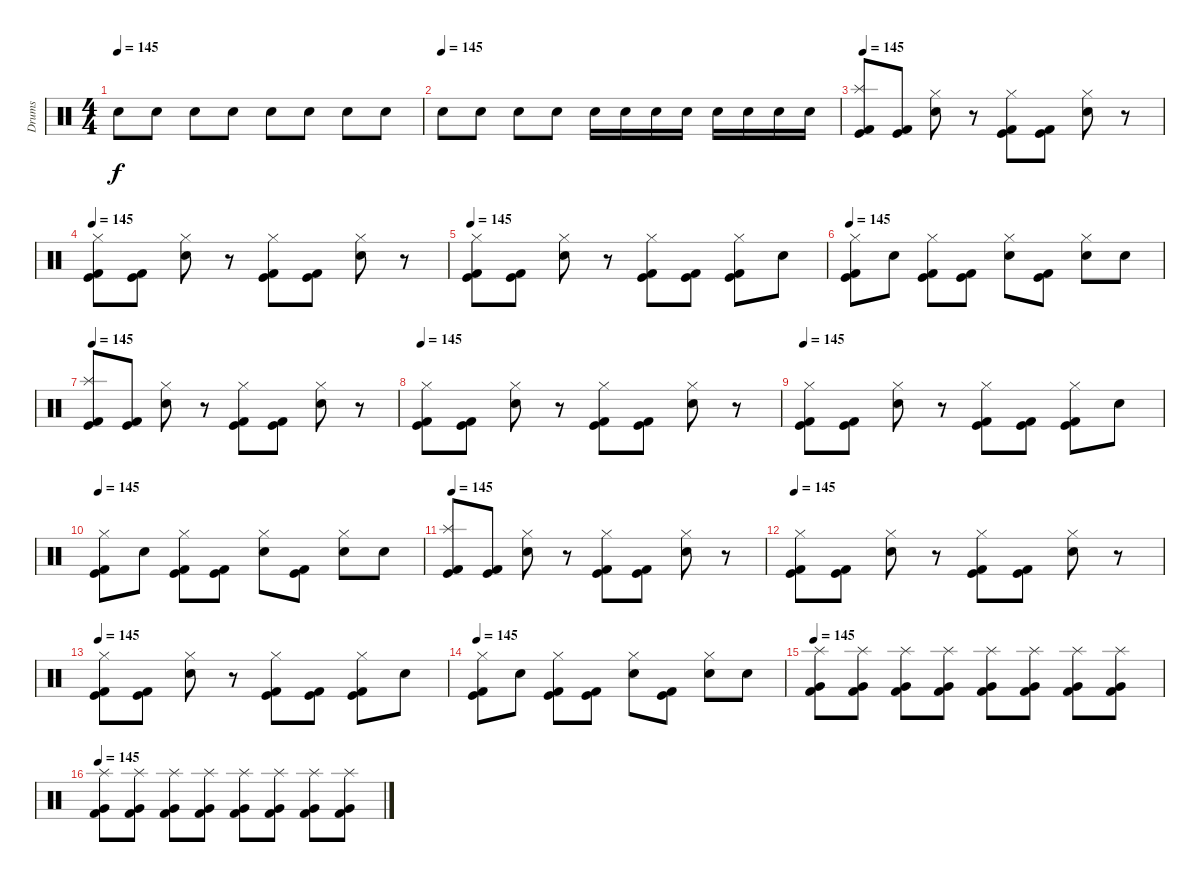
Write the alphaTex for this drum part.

\track ("Drums" "Drums") {instrument percussion}
\staff {score}
\articulation defaults
\ts (4 4)
\tempo 145
\clef neutral
\ks c "Snare (hit) 2".8{dy f} "Electric Snare (hit)".8 "Snare (hit) 2".8 "Electric Snare (hit)".8 "Snare (hit) 2".8 "Electric Snare (hit)".8 "Snare (hit) 2".8 "Electric Snare (hit)".8
|
\tempo (145)
"Snare (hit) 2".8 "Electric Snare (hit)".8 "Electric Snare (hit)".8 "Electric Snare (hit)".8 "Electric Snare (hit)".16 "Snare (hit) 2".16 "Electric Snare (hit)".16 "Snare (hit) 2".16 "Electric Snare (hit)".16 "Snare (hit) 2".16 "Electric Snare (hit)".16 "Snare (hit) 2".16 |
\tempo 145
("Kick (hit)" "Splash (hit)" "Kick (hit) 2").8 ("Kick (hit)" "Kick (hit) 2").8 ("Hi-Hat (closed)" "Electric Snare (hit)").8 r.8 ("Kick (hit)" "Hi-Hat (closed)" "Kick (hit) 2").8 ("Kick (hit)" "Kick (hit) 2").8 ("Hi-Hat (closed)" "Electric Snare (hit)").8 r.8 |
\tempo 145
("Kick (hit)" "Hi-Hat (closed)" "Kick (hit) 2").8 ("Kick (hit)" "Kick (hit) 2").8 ("Hi-Hat (closed)" "Electric Snare (hit)").8 r.8 ("Kick (hit)" "Hi-Hat (closed)" "Kick (hit) 2").8 ("Kick (hit)" "Kick (hit) 2").8 ("Hi-Hat (closed)" "Electric Snare (hit)").8 r.8 |
\tempo 145
("Kick (hit)" "Hi-Hat (closed)" "Kick (hit) 2").8 ("Kick (hit)" "Kick (hit) 2").8 ("Hi-Hat (closed)" "Electric Snare (hit)").8 r.8 ("Kick (hit)" "Hi-Hat (closed)" "Kick (hit) 2").8 ("Kick (hit)" "Kick (hit) 2").8 ("Kick (hit)" "Hi-Hat (closed)" "Kick (hit) 2").8 "Electric Snare (hit)".8 |
\tempo 145
("Kick (hit)" "Hi-Hat (closed)" "Kick (hit) 2").8 "Electric Snare (hit)".8 ("Kick (hit)" "Hi-Hat (closed)" "Kick (hit) 2").8 ("Kick (hit) 2" "Kick (hit)").8 ("Hi-Hat (closed)" "Electric Snare (hit)").8 ("Kick (hit)" "Kick (hit) 2").8 ("Hi-Hat (closed)" "Electric Snare (hit)").8 "Snare (hit) 2".8 |
\tempo 145
("Kick (hit)" "Splash (hit)" "Kick (hit) 2").8 ("Kick (hit)" "Kick (hit) 2").8 ("Hi-Hat (closed)" "Electric Snare (hit)").8 r.8 ("Kick (hit)" "Hi-Hat (closed)" "Kick (hit) 2").8 ("Kick (hit)" "Kick (hit) 2").8 ("Hi-Hat (closed)" "Electric Snare (hit)").8 r.8 |
\tempo 145
("Kick (hit)" "Hi-Hat (closed)" "Kick (hit) 2").8 ("Kick (hit)" "Kick (hit) 2").8 ("Hi-Hat (closed)" "Electric Snare (hit)").8 r.8 ("Kick (hit)" "Hi-Hat (closed)" "Kick (hit) 2").8 ("Kick (hit)" "Kick (hit) 2").8 ("Hi-Hat (closed)" "Electric Snare (hit)").8 r.8 |
\tempo 145
("Kick (hit)" "Hi-Hat (closed)" "Kick (hit) 2").8 ("Kick (hit)" "Kick (hit) 2").8 ("Hi-Hat (closed)" "Electric Snare (hit)").8 r.8 ("Kick (hit)" "Hi-Hat (closed)" "Kick (hit) 2").8 ("Kick (hit)" "Kick (hit) 2").8 ("Kick (hit)" "Hi-Hat (closed)" "Kick (hit) 2").8 "Electric Snare (hit)".8 |
\tempo 145
("Kick (hit)" "Hi-Hat (closed)" "Kick (hit) 2").8 "Electric Snare (hit)".8 ("Kick (hit)" "Hi-Hat (closed)" "Kick (hit) 2").8 ("Kick (hit) 2" "Kick (hit)").8 ("Hi-Hat (closed)" "Electric Snare (hit)").8 ("Kick (hit)" "Kick (hit) 2").8 ("Hi-Hat (closed)" "Electric Snare (hit)").8 "Snare (hit) 2".8 |
\tempo 145
("Kick (hit)" "Splash (hit)" "Kick (hit) 2").8 ("Kick (hit)" "Kick (hit) 2").8 ("Hi-Hat (closed)" "Electric Snare (hit)").8 r.8 ("Kick (hit)" "Hi-Hat (closed)" "Kick (hit) 2").8 ("Kick (hit)" "Kick (hit) 2").8 ("Hi-Hat (closed)" "Electric Snare (hit)").8 r.8 |
\tempo 145
("Kick (hit)" "Hi-Hat (closed)" "Kick (hit) 2").8 ("Kick (hit)" "Kick (hit) 2").8 ("Hi-Hat (closed)" "Electric Snare (hit)").8 r.8 ("Kick (hit)" "Hi-Hat (closed)" "Kick (hit) 2").8 ("Kick (hit)" "Kick (hit) 2").8 ("Hi-Hat (closed)" "Electric Snare (hit)").8 r.8 |
\tempo 145
("Kick (hit)" "Hi-Hat (closed)" "Kick (hit) 2").8 ("Kick (hit)" "Kick (hit) 2").8 ("Hi-Hat (closed)" "Electric Snare (hit)").8 r.8 ("Kick (hit)" "Hi-Hat (closed)" "Kick (hit) 2").8 ("Kick (hit)" "Kick (hit) 2").8 ("Kick (hit)" "Hi-Hat (closed)" "Kick (hit) 2").8 "Electric Snare (hit)".8 |
\tempo 145
("Kick (hit)" "Hi-Hat (closed)" "Kick (hit) 2").8 "Electric Snare (hit)".8 ("Kick (hit)" "Hi-Hat (closed)" "Kick (hit) 2").8 ("Kick (hit) 2" "Kick (hit)").8 ("Hi-Hat (closed)" "Electric Snare (hit)").8 ("Kick (hit)" "Kick (hit) 2").8 ("Hi-Hat (closed)" "Electric Snare (hit)").8 "Snare (hit) 2".8 |
\tempo 145
("Splash (hit)" "Very Low Tom (hit)" "Kick (hit) 2").8 ("Splash (hit)" "Very Low Tom (hit)" "Kick (hit) 2").8 ("Splash (hit)" "Very Low Tom (hit)" "Kick (hit) 2").8 ("Splash (hit)" "Very Low Tom (hit)" "Kick (hit) 2").8 ("Splash (hit)" "Very Low Tom (hit)" "Kick (hit) 2").8 ("Splash (hit)" "Very Low Tom (hit)" "Kick (hit) 2").8 ("Splash (hit)" "Very Low Tom (hit)" "Kick (hit) 2").8 ("Splash (hit)" "Very Low Tom (hit)" "Kick (hit) 2").8 |
\tempo 145
("Splash (hit)" "Very Low Tom (hit)" "Kick (hit) 2").8 ("Splash (hit)" "Very Low Tom (hit)" "Kick (hit) 2").8 ("Splash (hit)" "Very Low Tom (hit)" "Kick (hit) 2").8 ("Splash (hit)" "Very Low Tom (hit)" "Kick (hit) 2").8 ("Splash (hit)" "Very Low Tom (hit)" "Kick (hit) 2").8 ("Splash (hit)" "Very Low Tom (hit)" "Kick (hit) 2").8 ("Splash (hit)" "Very Low Tom (hit)" "Kick (hit) 2").8 ("Splash (hit)" "Very Low Tom (hit)" "Kick (hit) 2").8
